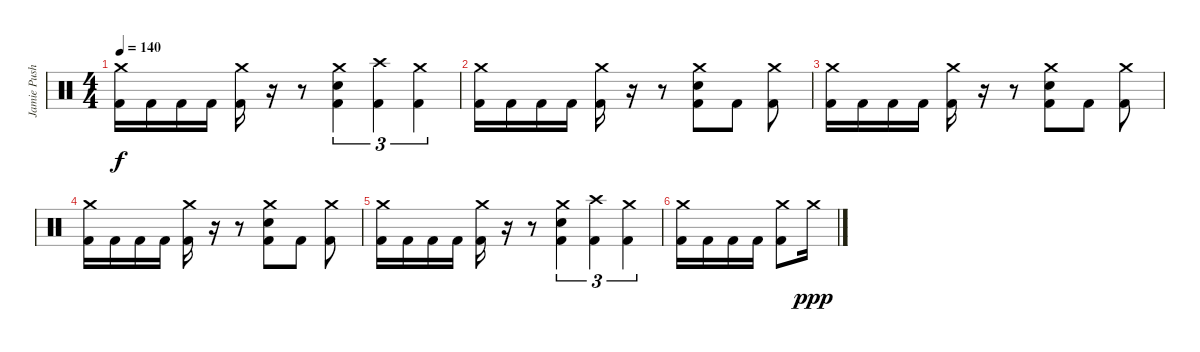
\track ("Jamie Pushbutton" "Jamie Push") {instrument percussion}
\staff {score}
\articulation defaults
\ts (4 4)
\tempo 140
\clef neutral
\ks c
("Crash medium (hit)" "Kick (hit) 2").16{dy f} "Kick (hit) 2".16 "Kick (hit) 2".16 "Kick (hit) 2".16 ("Crash medium (hit)" "Kick (hit) 2").16 r.16 r.8 ("Crash medium (hit)" "Electric Snare (hit)" "Kick (hit) 2").4{tu (3 2)} ("Crash high (hit)" "Kick (hit) 2").4{tu (3 2)} ("Crash medium (hit)" "Kick (hit) 2").4{tu (3 2)} |
("Crash medium (hit)" "Kick (hit) 2").16 "Kick (hit) 2".16 "Kick (hit) 2".16 "Kick (hit) 2".16 ("Crash medium (hit)" "Kick (hit) 2").16 r.16 r.8 ("Crash medium (hit)" "Electric Snare (hit)" "Kick (hit) 2").8 "Kick (hit) 2".8 ("Crash medium (hit)" "Kick (hit) 2").8 |
("Crash medium (hit)" "Kick (hit) 2").16 "Kick (hit) 2".16 "Kick (hit) 2".16 "Kick (hit) 2".16 ("Crash medium (hit)" "Kick (hit) 2").16 r.16 r.8 ("Crash medium (hit)" "Electric Snare (hit)" "Kick (hit) 2").8 "Kick (hit) 2".8 ("Crash medium (hit)" "Kick (hit) 2").8 |
("Crash medium (hit)" "Kick (hit) 2").16 "Kick (hit) 2".16 "Kick (hit) 2".16 "Kick (hit) 2".16 ("Crash medium (hit)" "Kick (hit) 2").16 r.16 r.8 ("Crash medium (hit)" "Electric Snare (hit)" "Kick (hit) 2").8 "Kick (hit) 2".8 ("Crash medium (hit)" "Kick (hit) 2").8 |
("Crash medium (hit)" "Kick (hit) 2").16 "Kick (hit) 2".16 "Kick (hit) 2".16 "Kick (hit) 2".16 ("Crash medium (hit)" "Kick (hit) 2").16 r.16 r.8 ("Crash medium (hit)" "Electric Snare (hit)" "Kick (hit) 2").4{tu (3 2)} ("Crash high (hit)" "Kick (hit) 2").4{tu (3 2)} ("Crash medium (hit)" "Kick (hit) 2").4{tu (3 2)} |
("Crash medium (hit)" "Kick (hit) 2").16 "Kick (hit) 2".16 "Kick (hit) 2".16 "Kick (hit) 2".16 ("Crash medium (hit)" "Kick (hit) 2").8 "Crash medium (hit)".16{dy ppp}
